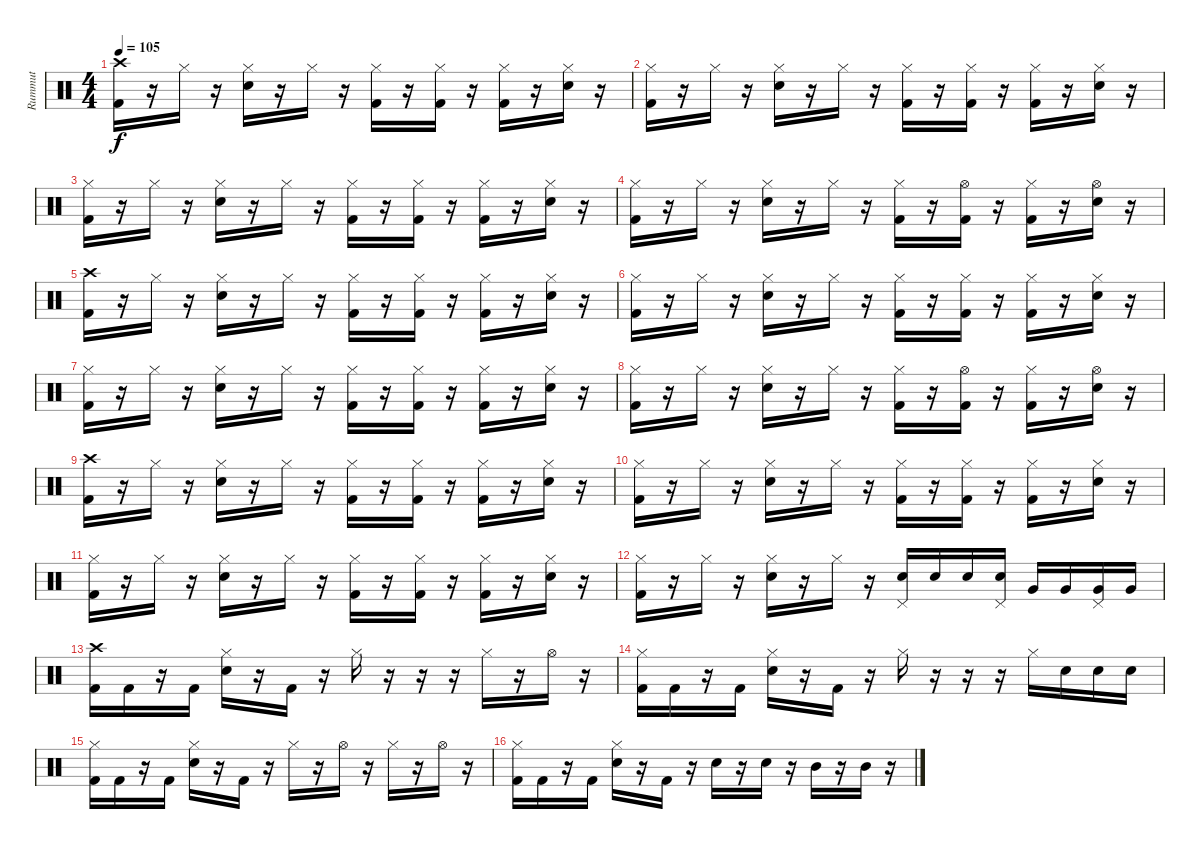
\track ("Rummut" "Rummut") {instrument percussion}
\staff {score}
\articulation defaults
\ts (4 4)
\tempo 105
\clef neutral
\ks c
("Crash high (hit)" "Kick (hit) 2").16{dy f} r.16 "Hi-Hat (closed)".16 r.16 ("Hi-Hat (closed)" "Snare (hit) 2").16 r.16 "Hi-Hat (closed)".16 r.16 ("Hi-Hat (closed)" "Kick (hit) 2").16 r.16 ("Hi-Hat (closed)" "Kick (hit) 2").16 r.16 ("Hi-Hat (closed)" "Kick (hit) 2").16 r.16 ("Hi-Hat (closed)" "Snare (hit) 2").16 r.16 |
("Hi-Hat (closed)" "Kick (hit) 2").16 r.16 "Hi-Hat (closed)".16 r.16 ("Hi-Hat (closed)" "Snare (hit) 2").16 r.16 "Hi-Hat (closed)".16 r.16 ("Hi-Hat (closed)" "Kick (hit) 2").16 r.16 ("Hi-Hat (closed)" "Kick (hit) 2").16 r.16 ("Hi-Hat (closed)" "Kick (hit) 2").16 r.16 ("Hi-Hat (closed)" "Snare (hit) 2").16 r.16 |
("Hi-Hat (closed)" "Kick (hit) 2").16 r.16 "Hi-Hat (closed)".16 r.16 ("Hi-Hat (closed)" "Snare (hit) 2").16 r.16 "Hi-Hat (closed)".16 r.16 ("Hi-Hat (closed)" "Kick (hit) 2").16 r.16 ("Hi-Hat (closed)" "Kick (hit) 2").16 r.16 ("Hi-Hat (closed)" "Kick (hit) 2").16 r.16 ("Hi-Hat (closed)" "Snare (hit) 2").16 r.16 |
("Hi-Hat (closed)" "Kick (hit) 2").16 r.16 "Hi-Hat (closed)".16 r.16 ("Hi-Hat (closed)" "Snare (hit) 2").16 r.16 "Hi-Hat (closed)".16 r.16 ("Hi-Hat (closed)" "Kick (hit) 2").16 r.16 ("Hi-Hat (open)" "Kick (hit) 2").16 r.16 ("Hi-Hat (closed)" "Kick (hit) 2").16 r.16 ("Hi-Hat (open)" "Snare (hit) 2").16 r.16 |
("Crash high (hit)" "Kick (hit) 2").16 r.16 "Hi-Hat (closed)".16 r.16 ("Hi-Hat (closed)" "Snare (hit) 2").16 r.16 "Hi-Hat (closed)".16 r.16 ("Hi-Hat (closed)" "Kick (hit) 2").16 r.16 ("Hi-Hat (closed)" "Kick (hit) 2").16 r.16 ("Hi-Hat (closed)" "Kick (hit) 2").16 r.16 ("Hi-Hat (closed)" "Snare (hit) 2").16 r.16 |
("Hi-Hat (closed)" "Kick (hit) 2").16 r.16 "Hi-Hat (closed)".16 r.16 ("Hi-Hat (closed)" "Snare (hit) 2").16 r.16 "Hi-Hat (closed)".16 r.16 ("Hi-Hat (closed)" "Kick (hit) 2").16 r.16 ("Hi-Hat (closed)" "Kick (hit) 2").16 r.16 ("Hi-Hat (closed)" "Kick (hit) 2").16 r.16 ("Hi-Hat (closed)" "Snare (hit) 2").16 r.16 |
("Hi-Hat (closed)" "Kick (hit) 2").16 r.16 "Hi-Hat (closed)".16 r.16 ("Hi-Hat (closed)" "Snare (hit) 2").16 r.16 "Hi-Hat (closed)".16 r.16 ("Hi-Hat (closed)" "Kick (hit) 2").16 r.16 ("Hi-Hat (closed)" "Kick (hit) 2").16 r.16 ("Hi-Hat (closed)" "Kick (hit) 2").16 r.16 ("Hi-Hat (closed)" "Snare (hit) 2").16 r.16 |
("Hi-Hat (closed)" "Kick (hit) 2").16 r.16 "Hi-Hat (closed)".16 r.16 ("Hi-Hat (closed)" "Snare (hit) 2").16 r.16 "Hi-Hat (closed)".16 r.16 ("Hi-Hat (closed)" "Kick (hit) 2").16 r.16 ("Hi-Hat (open)" "Kick (hit) 2").16 r.16 ("Hi-Hat (closed)" "Kick (hit) 2").16 r.16 ("Hi-Hat (open)" "Snare (hit) 2").16 r.16 |
("Crash high (hit)" "Kick (hit) 2").16 r.16 "Hi-Hat (closed)".16 r.16 ("Hi-Hat (closed)" "Snare (hit) 2").16 r.16 "Hi-Hat (closed)".16 r.16 ("Hi-Hat (closed)" "Kick (hit) 2").16 r.16 ("Hi-Hat (closed)" "Kick (hit) 2").16 r.16 ("Hi-Hat (closed)" "Kick (hit) 2").16 r.16 ("Hi-Hat (closed)" "Snare (hit) 2").16 r.16 |
("Hi-Hat (closed)" "Kick (hit) 2").16 r.16 "Hi-Hat (closed)".16 r.16 ("Hi-Hat (closed)" "Snare (hit) 2").16 r.16 "Hi-Hat (closed)".16 r.16 ("Hi-Hat (closed)" "Kick (hit) 2").16 r.16 ("Hi-Hat (closed)" "Kick (hit) 2").16 r.16 ("Hi-Hat (closed)" "Kick (hit) 2").16 r.16 ("Hi-Hat (closed)" "Snare (hit) 2").16 r.16 |
("Hi-Hat (closed)" "Kick (hit) 2").16 r.16 "Hi-Hat (closed)".16 r.16 ("Hi-Hat (closed)" "Snare (hit) 2").16 r.16 "Hi-Hat (closed)".16 r.16 ("Hi-Hat (closed)" "Kick (hit) 2").16 r.16 ("Hi-Hat (closed)" "Kick (hit) 2").16 r.16 ("Hi-Hat (closed)" "Kick (hit) 2").16 r.16 ("Hi-Hat (closed)" "Snare (hit) 2").16 r.16 |
("Hi-Hat (closed)" "Kick (hit) 2").16 r.16 "Hi-Hat (closed)".16 r.16 ("Hi-Hat (closed)" "Snare (hit) 2").16 r.16 "Hi-Hat (closed)".16 r.16 ("Pedal Hi-Hat (hit)" "Snare (hit) 2").16 "Snare (hit) 2".16 "Snare (hit) 2".16 ("Pedal Hi-Hat (hit)" "Snare (hit) 2").16 "Very Low Tom (hit)".16 "Very Low Tom (hit)".16 ("Pedal Hi-Hat (hit)" "Very Low Tom (hit)").16 "Very Low Tom (hit)".16 |
("Crash high (hit)" "Kick (hit) 2").16 "Kick (hit) 2".16 r.16 "Kick (hit) 2".16 ("Hi-Hat (closed)" "Snare (hit) 2").16 r.16 "Kick (hit) 2".16 r.16 "Hi-Hat (closed)".16 r.16 r.16 r.16 "Hi-Hat (closed)".16 r.16 "Hi-Hat (open)".16 r.16 |
("Hi-Hat (closed)" "Kick (hit) 2").16 "Kick (hit) 2".16 r.16 "Kick (hit) 2".16 ("Hi-Hat (closed)" "Snare (hit) 2").16 r.16 "Kick (hit) 2".16 r.16 "Hi-Hat (closed)".16 r.16 r.16 r.16 "Hi-Hat (closed)".16 "Snare (hit) 2".16 "Snare (hit) 2".16 "Snare (hit) 2".16 |
("Hi-Hat (closed)" "Kick (hit) 2").16 "Kick (hit) 2".16 r.16 "Kick (hit) 2".16 ("Hi-Hat (closed)" "Snare (hit) 2").16 r.16 "Kick (hit) 2".16 r.16 "Hi-Hat (closed)".16 r.16 "Hi-Hat (open)".16 r.16 "Hi-Hat (closed)".16 r.16 "Hi-Hat (open)".16 r.16 |
("Hi-Hat (closed)" "Kick (hit) 2").16 "Kick (hit) 2".16 r.16 "Kick (hit) 2".16 ("Hi-Hat (closed)" "Snare (hit) 2").16 r.16 "Kick (hit) 2".16 r.16 "Snare (hit) 2".16 r.16 "Snare (hit) 2".16 r.16 "Mid Tom (hit)".16 r.16 "Mid Tom (hit)".16 r.16
